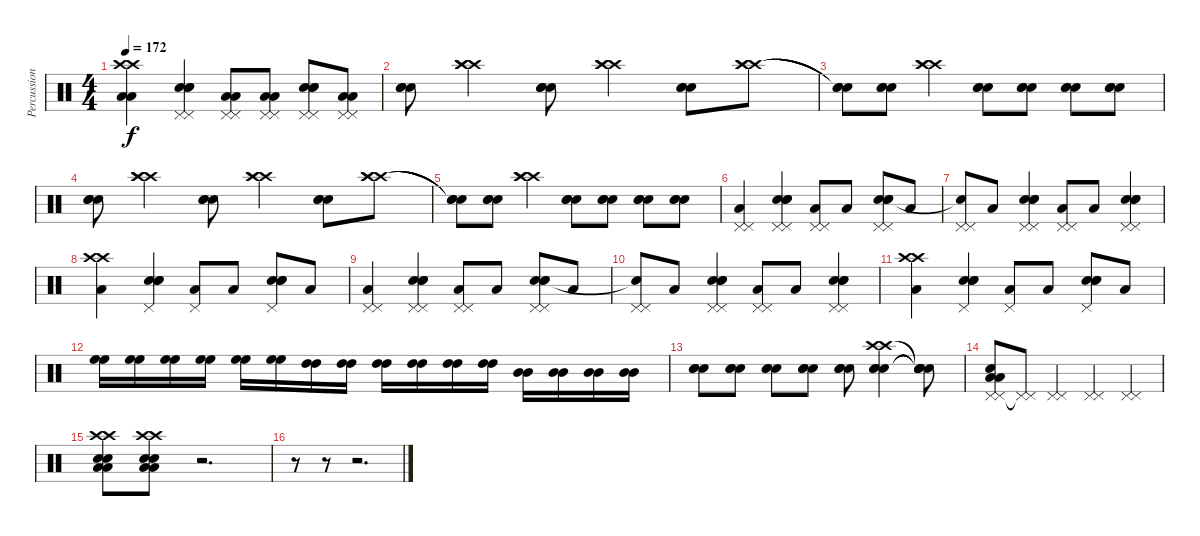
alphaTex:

\track ("Percussion" "Percussion") {instrument percussion}
\staff {score}
\articulation defaults
\ts (4 4)
\tempo 172
\clef neutral
\ks c
("Crash high (hit)" "Crash high (hit)" "Low Floor Tom (hit)" "Low Floor Tom (hit)").4{dy f} ("Pedal Hi-Hat (hit)" "Pedal Hi-Hat (hit)" "Electric Snare (hit)" "Electric Snare (hit)" "Electric Snare (hit)").4 ("Pedal Hi-Hat (hit)" "Pedal Hi-Hat (hit)" "Low Floor Tom (hit)" "Low Floor Tom (hit)").8 ("Pedal Hi-Hat (hit)" "Pedal Hi-Hat (hit)" "Low Floor Tom (hit)" "Low Floor Tom (hit)").8 ("Pedal Hi-Hat (hit)" "Pedal Hi-Hat (hit)" "Electric Snare (hit)" "Electric Snare (hit)" "Electric Snare (hit)").8 ("Pedal Hi-Hat (hit)" "Pedal Hi-Hat (hit)" "Low Floor Tom (hit)" "Low Floor Tom (hit)").8 |
("Electric Snare (hit)" "Electric Snare (hit)" "Electric Snare (hit)").8 ("Crash high (hit)" "Crash high (hit)" "Crash high (hit)").4 ("Electric Snare (hit)" "Electric Snare (hit)" "Electric Snare (hit)").8 ("Crash high (hit)" "Crash high (hit)" "Crash high (hit)").4 ("Electric Snare (hit)" "Electric Snare (hit)" "Electric Snare (hit)").8 ("Crash high (hit)" "Crash high (hit)" "Crash high (hit)").8 |
("Snare (hit)"{t} "Snare (hit)"{t} "Snare (hit)"{t}).8 ("Electric Snare (hit)" "Electric Snare (hit)" "Electric Snare (hit)").8 ("Crash high (hit)" "Crash high (hit)" "Crash high (hit)").4 ("Electric Snare (hit)" "Electric Snare (hit)" "Electric Snare (hit)").8 ("Electric Snare (hit)" "Electric Snare (hit)" "Electric Snare (hit)").8 ("Electric Snare (hit)" "Electric Snare (hit)" "Electric Snare (hit)").8 ("Electric Snare (hit)" "Electric Snare (hit)" "Electric Snare (hit)").8 |
("Electric Snare (hit)" "Electric Snare (hit)" "Electric Snare (hit)").8 ("Crash high (hit)" "Crash high (hit)" "Crash high (hit)").4 ("Electric Snare (hit)" "Electric Snare (hit)" "Electric Snare (hit)").8 ("Crash high (hit)" "Crash high (hit)" "Crash high (hit)").4 ("Electric Snare (hit)" "Electric Snare (hit)" "Electric Snare (hit)").8 ("Crash high (hit)" "Crash high (hit)" "Crash high (hit)").8 |
("Snare (hit)"{t} "Snare (hit)"{t} "Snare (hit)"{t}).8 ("Electric Snare (hit)" "Electric Snare (hit)" "Electric Snare (hit)").8 ("Crash high (hit)" "Crash high (hit)" "Crash high (hit)").4 ("Electric Snare (hit)" "Electric Snare (hit)" "Electric Snare (hit)").8 ("Electric Snare (hit)" "Electric Snare (hit)" "Electric Snare (hit)").8 ("Electric Snare (hit)" "Electric Snare (hit)" "Electric Snare (hit)").8 ("Electric Snare (hit)" "Electric Snare (hit)" "Electric Snare (hit)").8 |
("Pedal Hi-Hat (hit)" "Pedal Hi-Hat (hit)" "Low Floor Tom (hit)").4 ("Pedal Hi-Hat (hit)" "Pedal Hi-Hat (hit)" "Electric Snare (hit)" "Electric Snare (hit)" "Electric Snare (hit)").4 ("Pedal Hi-Hat (hit)" "Pedal Hi-Hat (hit)" "Low Floor Tom (hit)").8 "Low Floor Tom (hit)".8 ("Pedal Hi-Hat (hit)" "Pedal Hi-Hat (hit)" "Electric Snare (hit)" "Electric Snare (hit)" "Electric Snare (hit)").8 "Low Floor Tom (hit)".8 |
("Pedal Hi-Hat (hit)" "Pedal Hi-Hat (hit)" "Snare (hit)"{t}).8 "Low Floor Tom (hit)".8 ("Pedal Hi-Hat (hit)" "Pedal Hi-Hat (hit)" "Electric Snare (hit)" "Electric Snare (hit)" "Electric Snare (hit)").4 ("Pedal Hi-Hat (hit)" "Pedal Hi-Hat (hit)" "Low Floor Tom (hit)").8 "Low Floor Tom (hit)".8 ("Pedal Hi-Hat (hit)" "Pedal Hi-Hat (hit)" "Electric Snare (hit)" "Electric Snare (hit)" "Electric Snare (hit)").4 |
("Crash high (hit)" "Crash high (hit)" "Low Floor Tom (hit)").4 ("Pedal Hi-Hat (hit)" "Electric Snare (hit)" "Electric Snare (hit)" "Electric Snare (hit)").4 ("Pedal Hi-Hat (hit)" "Low Floor Tom (hit)").8 "Low Floor Tom (hit)".8 ("Pedal Hi-Hat (hit)" "Electric Snare (hit)" "Electric Snare (hit)" "Electric Snare (hit)").8 "Low Floor Tom (hit)".8 |
("Pedal Hi-Hat (hit)" "Pedal Hi-Hat (hit)" "Low Floor Tom (hit)").4 ("Pedal Hi-Hat (hit)" "Pedal Hi-Hat (hit)" "Electric Snare (hit)" "Electric Snare (hit)" "Electric Snare (hit)").4 ("Pedal Hi-Hat (hit)" "Pedal Hi-Hat (hit)" "Low Floor Tom (hit)").8 "Low Floor Tom (hit)".8 ("Pedal Hi-Hat (hit)" "Pedal Hi-Hat (hit)" "Electric Snare (hit)" "Electric Snare (hit)" "Electric Snare (hit)").8 "Low Floor Tom (hit)".8 |
("Pedal Hi-Hat (hit)" "Pedal Hi-Hat (hit)" "Snare (hit)"{t}).8 "Low Floor Tom (hit)".8 ("Pedal Hi-Hat (hit)" "Pedal Hi-Hat (hit)" "Electric Snare (hit)" "Electric Snare (hit)" "Electric Snare (hit)").4 ("Pedal Hi-Hat (hit)" "Pedal Hi-Hat (hit)" "Low Floor Tom (hit)").8 "Low Floor Tom (hit)".8 ("Pedal Hi-Hat (hit)" "Pedal Hi-Hat (hit)" "Electric Snare (hit)" "Electric Snare (hit)" "Electric Snare (hit)").4 |
("Crash high (hit)" "Crash high (hit)" "Low Floor Tom (hit)").4 ("Pedal Hi-Hat (hit)" "Electric Snare (hit)" "Electric Snare (hit)" "Electric Snare (hit)").4 ("Pedal Hi-Hat (hit)" "Low Floor Tom (hit)").8 "Low Floor Tom (hit)".8 ("Pedal Hi-Hat (hit)" "Electric Snare (hit)" "Electric Snare (hit)" "Electric Snare (hit)").8 "Low Floor Tom (hit)".8 |
("High Floor Tom (hit)" "High Floor Tom (hit)").16 ("High Floor Tom (hit)" "High Floor Tom (hit)").16 ("High Floor Tom (hit)" "High Floor Tom (hit)").16 ("High Floor Tom (hit)" "High Floor Tom (hit)").16 ("High Floor Tom (hit)" "High Floor Tom (hit)").16 ("High Floor Tom (hit)" "High Floor Tom (hit)").16 ("High Tom (hit)" "High Tom (hit)").16 ("High Tom (hit)" "High Tom (hit)").16 ("High Tom (hit)" "High Tom (hit)").16 ("High Tom (hit)" "High Tom (hit)").16 ("High Tom (hit)" "High Tom (hit)").16 ("High Tom (hit)" "High Tom (hit)").16 ("Mid Tom (hit)" "Mid Tom (hit)").16 ("Mid Tom (hit)" "Mid Tom (hit)").16 ("Mid Tom (hit)" "Mid Tom (hit)").16 ("Mid Tom (hit)" "Mid Tom (hit)").16 |
("Electric Snare (hit)" "Electric Snare (hit)" "Electric Snare (hit)").8 ("Electric Snare (hit)" "Electric Snare (hit)" "Electric Snare (hit)").8 ("Electric Snare (hit)" "Electric Snare (hit)" "Electric Snare (hit)").8 ("Electric Snare (hit)" "Electric Snare (hit)" "Electric Snare (hit)").8 ("Electric Snare (hit)" "Electric Snare (hit)" "Electric Snare (hit)").8 ("Crash high (hit)" "Crash high (hit)" "Electric Snare (hit)" "Electric Snare (hit)" "Electric Snare (hit)").4 ("Snare (hit)"{t} "Snare (hit)"{t} "Snare (hit)"{t} "Snare (hit)"{t} "Snare (hit)"{t}).8 |
("Pedal Hi-Hat (hit)" "Pedal Hi-Hat (hit)" "Electric Snare (hit)" "Low Floor Tom (hit)" "Low Floor Tom (hit)").8 ("Pedal Hi-Hat (hit)"{t} "Pedal Hi-Hat (hit)"{t}).8 ("Pedal Hi-Hat (hit)" "Pedal Hi-Hat (hit)").4 ("Pedal Hi-Hat (hit)" "Pedal Hi-Hat (hit)").4 ("Pedal Hi-Hat (hit)" "Pedal Hi-Hat (hit)").4 |
("Crash high (hit)" "Crash high (hit)" "Electric Snare (hit)" "Electric Snare (hit)" "Low Floor Tom (hit)" "Low Floor Tom (hit)").8 ("Crash high (hit)" "Crash high (hit)" "Electric Snare (hit)" "Electric Snare (hit)" "Low Floor Tom (hit)" "Low Floor Tom (hit)").8 r.2{d} |
r.8 r.8 r.2{d}
